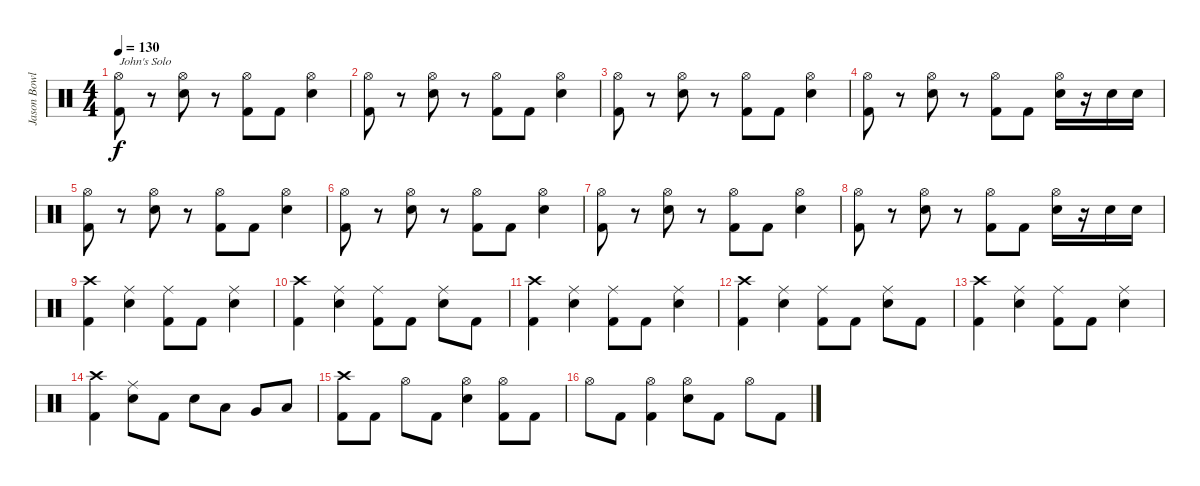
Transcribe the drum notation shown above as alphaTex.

\track ("Jason Bowld" "Jason Bowl") {instrument percussion}
\staff {score}
\articulation defaults
\ts (4 4)
\tempo 130
\clef neutral
\ks c
("Hi-Hat (open)" "Kick (hit) 2").8{txt "John's Solo" dy f} r.8 ("Hi-Hat (open)" "Snare (hit) 2").8 r.8 ("Hi-Hat (open)" "Kick (hit) 2").8 "Kick (hit) 2".8 ("Hi-Hat (open)" "Snare (hit) 2").4 |
("Hi-Hat (open)" "Kick (hit) 2").8 r.8 ("Hi-Hat (open)" "Snare (hit) 2").8 r.8 ("Hi-Hat (open)" "Kick (hit) 2").8 "Kick (hit) 2".8 ("Hi-Hat (open)" "Snare (hit) 2").4 |
("Hi-Hat (open)" "Kick (hit) 2").8 r.8 ("Hi-Hat (open)" "Snare (hit) 2").8 r.8 ("Hi-Hat (open)" "Kick (hit) 2").8 "Kick (hit) 2".8 ("Hi-Hat (open)" "Snare (hit) 2").4 |
("Hi-Hat (open)" "Kick (hit) 2").8 r.8 ("Hi-Hat (open)" "Snare (hit) 2").8 r.8 ("Hi-Hat (open)" "Kick (hit) 2").8 "Kick (hit) 2".8 ("Hi-Hat (open)" "Snare (hit) 2").16 r.16 "Snare (hit) 2".16 "Snare (hit) 2".16 |
("Hi-Hat (open)" "Kick (hit) 2").8 r.8 ("Hi-Hat (open)" "Snare (hit) 2").8 r.8 ("Hi-Hat (open)" "Kick (hit) 2").8 "Kick (hit) 2".8 ("Hi-Hat (open)" "Snare (hit) 2").4 |
("Hi-Hat (open)" "Kick (hit) 2").8 r.8 ("Hi-Hat (open)" "Snare (hit) 2").8 r.8 ("Hi-Hat (open)" "Kick (hit) 2").8 "Kick (hit) 2".8 ("Hi-Hat (open)" "Snare (hit) 2").4 |
("Hi-Hat (open)" "Kick (hit) 2").8 r.8 ("Hi-Hat (open)" "Snare (hit) 2").8 r.8 ("Hi-Hat (open)" "Kick (hit) 2").8 "Kick (hit) 2".8 ("Hi-Hat (open)" "Snare (hit) 2").4 |
("Hi-Hat (open)" "Kick (hit) 2").8 r.8 ("Hi-Hat (open)" "Snare (hit) 2").8 r.8 ("Hi-Hat (open)" "Kick (hit) 2").8 "Kick (hit) 2".8 ("Hi-Hat (open)" "Snare (hit) 2").16 r.16 "Snare (hit) 2".16 "Snare (hit) 2".16 |
("Crash high (hit)" "Kick (hit) 2").4 ("Ride (middle)" "Snare (hit) 2").4 ("Ride (middle)" "Kick (hit) 2").8 "Kick (hit) 2".8 ("Ride (middle)" "Snare (hit) 2").4 |
("Crash high (hit)" "Kick (hit) 2").4 ("Ride (middle)" "Snare (hit) 2").4 ("Ride (middle)" "Kick (hit) 2").8 "Kick (hit) 2".8 ("Ride (middle)" "Snare (hit) 2").8 "Kick (hit) 2".8 |
("Crash high (hit)" "Kick (hit) 2").4 ("Ride (middle)" "Snare (hit) 2").4 ("Ride (middle)" "Kick (hit) 2").8 "Kick (hit) 2".8 ("Ride (middle)" "Snare (hit) 2").4 |
("Crash high (hit)" "Kick (hit) 2").4 ("Ride (middle)" "Snare (hit) 2").4 ("Ride (middle)" "Kick (hit) 2").8 "Kick (hit) 2".8 ("Ride (middle)" "Snare (hit) 2").8 "Kick (hit) 2".8 |
("Crash high (hit)" "Kick (hit) 2").4 ("Ride (middle)" "Snare (hit) 2").4 ("Ride (middle)" "Kick (hit) 2").8 "Kick (hit) 2".8 ("Ride (middle)" "Snare (hit) 2").4 |
("Crash high (hit)" "Kick (hit) 2").4 ("Ride (middle)" "Snare (hit) 2").8 "Kick (hit) 2".8 "Snare (hit) 2".8 "Low Tom (hit)".8 "Very Low Tom (hit)".8 "Low Floor Tom (hit)".8 |
("Crash high (hit)" "Kick (hit) 2").8 "Kick (hit) 2".8 "Hi-Hat (open)".8 "Kick (hit) 2".8 ("Hi-Hat (open)" "Snare (hit) 2").4 ("Hi-Hat (open)" "Kick (hit) 2").8 "Kick (hit) 2".8 |
"Hi-Hat (open)".8 "Kick (hit) 2".8 ("Hi-Hat (open)" "Kick (hit) 2").4 ("Hi-Hat (open)" "Snare (hit) 2").8 "Kick (hit) 2".8 "Hi-Hat (open)".8 "Kick (hit) 2".8
